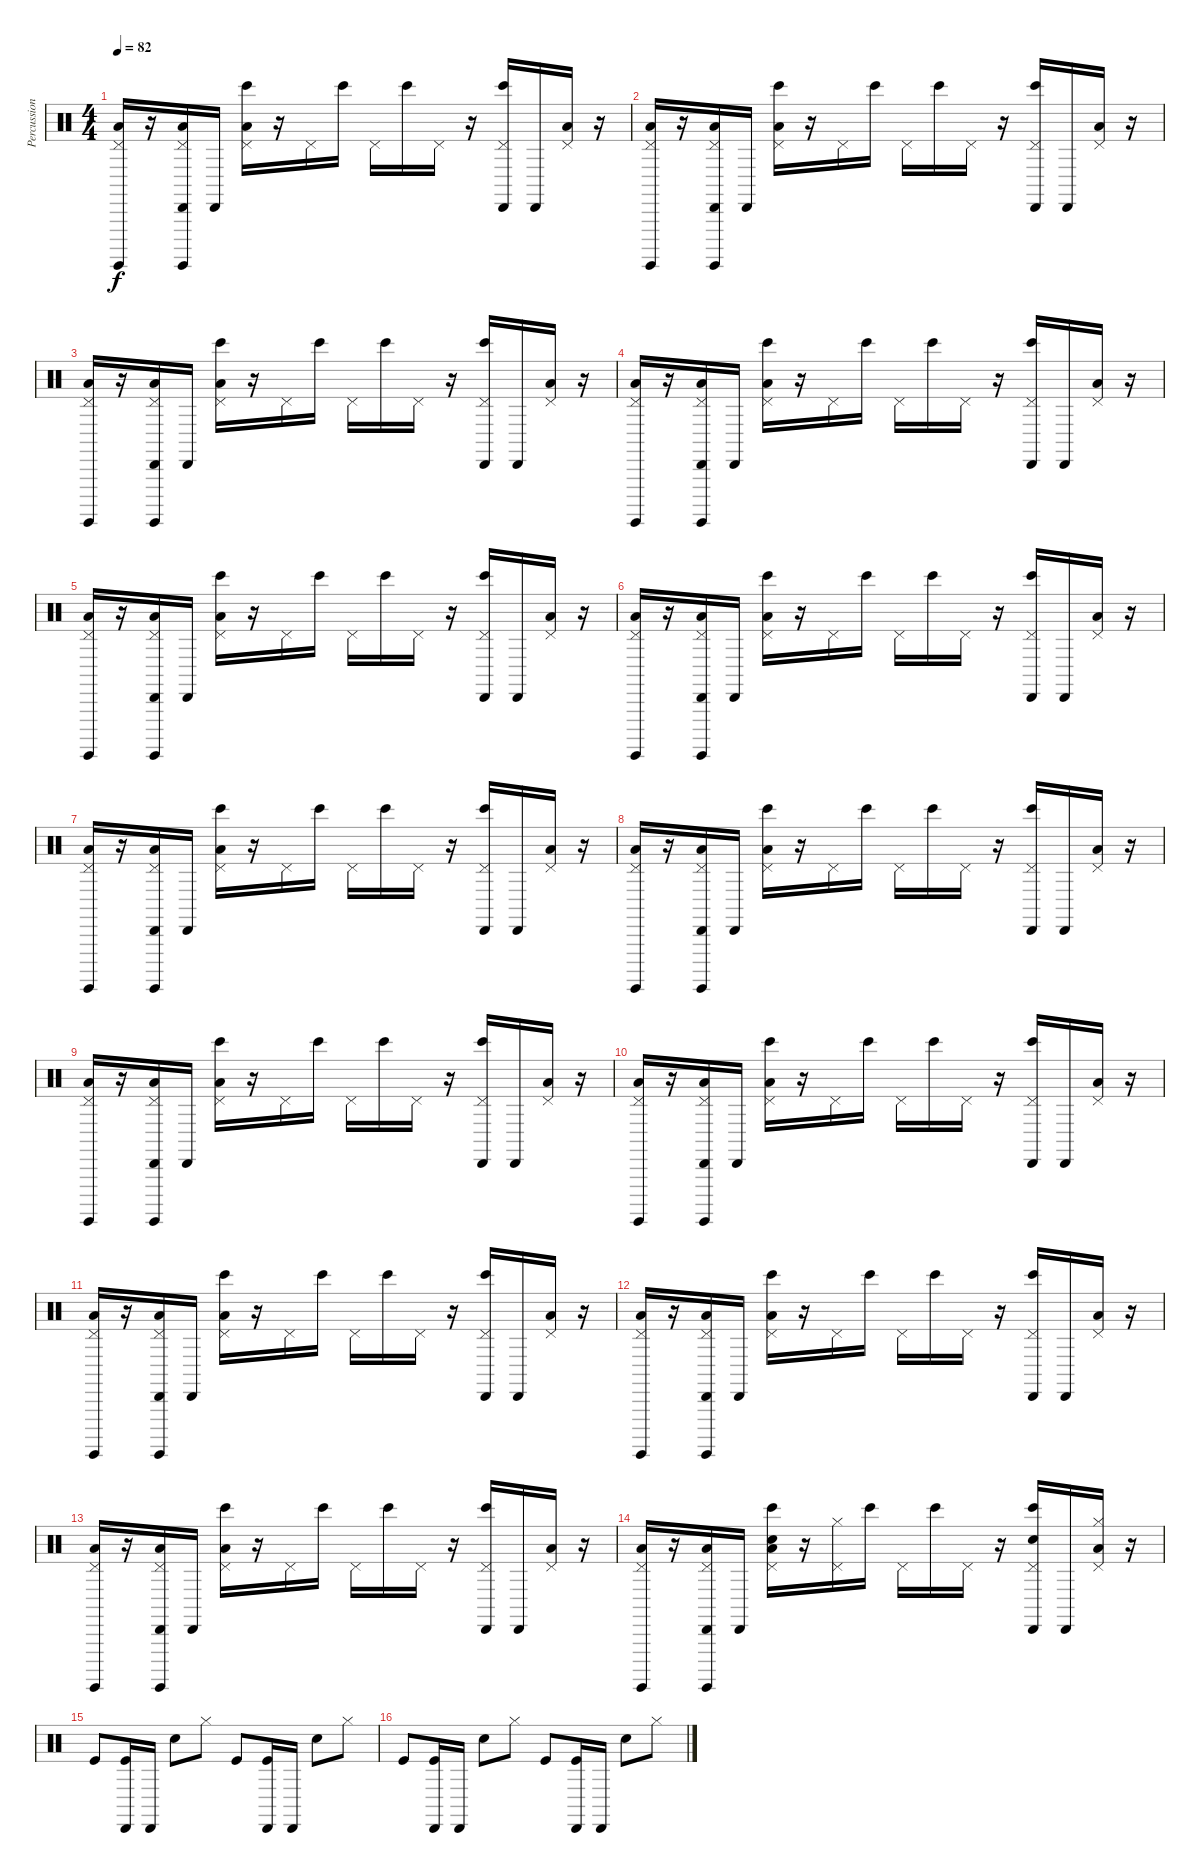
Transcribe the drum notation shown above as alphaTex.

\track ("Percussions" "Percussion") {instrument percussion}
\staff {score}
\articulation defaults
\ts (4 4)
\tempo 82
\clef neutral
\ks c
("Pedal Hi-Hat (hit)" "Low Floor Tom (hit)" "Surdo (hit)").16{dy f} r.16 ("Pedal Hi-Hat (hit)" "Cabasa (hit)" "Low Floor Tom (hit)" "Surdo (hit)").16 "Cabasa (hit)".16 ("Pedal Hi-Hat (hit)" "Low Floor Tom (hit)" "Bongo High (hit)").16 r.16 "Pedal Hi-Hat (hit)".16 "Bongo High (hit)".16 "Pedal Hi-Hat (hit)".16 "Bongo High (hit)".16 "Pedal Hi-Hat (hit)".16 r.16 ("Pedal Hi-Hat (hit)" "Cabasa (hit)" "Bongo High (hit)").16 "Cabasa (hit)".16 ("Pedal Hi-Hat (hit)" "Low Floor Tom (hit)").16 r.16 |
("Pedal Hi-Hat (hit)" "Low Floor Tom (hit)" "Surdo (hit)").16 r.16 ("Pedal Hi-Hat (hit)" "Cabasa (hit)" "Low Floor Tom (hit)" "Surdo (hit)").16 "Cabasa (hit)".16 ("Pedal Hi-Hat (hit)" "Low Floor Tom (hit)" "Bongo High (hit)").16 r.16 "Pedal Hi-Hat (hit)".16 "Bongo High (hit)".16 "Pedal Hi-Hat (hit)".16 "Bongo High (hit)".16 "Pedal Hi-Hat (hit)".16 r.16 ("Pedal Hi-Hat (hit)" "Cabasa (hit)" "Bongo High (hit)").16 "Cabasa (hit)".16 ("Pedal Hi-Hat (hit)" "Low Floor Tom (hit)").16 r.16 |
("Pedal Hi-Hat (hit)" "Low Floor Tom (hit)" "Surdo (hit)").16 r.16 ("Pedal Hi-Hat (hit)" "Cabasa (hit)" "Low Floor Tom (hit)" "Surdo (hit)").16 "Cabasa (hit)".16 ("Pedal Hi-Hat (hit)" "Low Floor Tom (hit)" "Bongo High (hit)").16 r.16 "Pedal Hi-Hat (hit)".16 "Bongo High (hit)".16 "Pedal Hi-Hat (hit)".16 "Bongo High (hit)".16 "Pedal Hi-Hat (hit)".16 r.16 ("Pedal Hi-Hat (hit)" "Cabasa (hit)" "Bongo High (hit)").16 "Cabasa (hit)".16 ("Pedal Hi-Hat (hit)" "Low Floor Tom (hit)").16 r.16 |
("Pedal Hi-Hat (hit)" "Low Floor Tom (hit)" "Surdo (hit)").16 r.16 ("Pedal Hi-Hat (hit)" "Cabasa (hit)" "Low Floor Tom (hit)" "Surdo (hit)").16 "Cabasa (hit)".16 ("Pedal Hi-Hat (hit)" "Low Floor Tom (hit)" "Bongo High (hit)").16 r.16 "Pedal Hi-Hat (hit)".16 "Bongo High (hit)".16 "Pedal Hi-Hat (hit)".16 "Bongo High (hit)".16 "Pedal Hi-Hat (hit)".16 r.16 ("Pedal Hi-Hat (hit)" "Cabasa (hit)" "Bongo High (hit)").16 "Cabasa (hit)".16 ("Pedal Hi-Hat (hit)" "Low Floor Tom (hit)").16 r.16 |
("Pedal Hi-Hat (hit)" "Low Floor Tom (hit)" "Surdo (hit)").16 r.16 ("Pedal Hi-Hat (hit)" "Cabasa (hit)" "Low Floor Tom (hit)" "Surdo (hit)").16 "Cabasa (hit)".16 ("Pedal Hi-Hat (hit)" "Low Floor Tom (hit)" "Bongo High (hit)").16 r.16 "Pedal Hi-Hat (hit)".16 "Bongo High (hit)".16 "Pedal Hi-Hat (hit)".16 "Bongo High (hit)".16 "Pedal Hi-Hat (hit)".16 r.16 ("Pedal Hi-Hat (hit)" "Cabasa (hit)" "Bongo High (hit)").16 "Cabasa (hit)".16 ("Pedal Hi-Hat (hit)" "Low Floor Tom (hit)").16 r.16 |
("Pedal Hi-Hat (hit)" "Low Floor Tom (hit)" "Surdo (hit)").16 r.16 ("Pedal Hi-Hat (hit)" "Cabasa (hit)" "Low Floor Tom (hit)" "Surdo (hit)").16 "Cabasa (hit)".16 ("Pedal Hi-Hat (hit)" "Low Floor Tom (hit)" "Bongo High (hit)").16 r.16 "Pedal Hi-Hat (hit)".16 "Bongo High (hit)".16 "Pedal Hi-Hat (hit)".16 "Bongo High (hit)".16 "Pedal Hi-Hat (hit)".16 r.16 ("Pedal Hi-Hat (hit)" "Cabasa (hit)" "Bongo High (hit)").16 "Cabasa (hit)".16 ("Pedal Hi-Hat (hit)" "Low Floor Tom (hit)").16 r.16 |
("Pedal Hi-Hat (hit)" "Low Floor Tom (hit)" "Surdo (hit)").16 r.16 ("Pedal Hi-Hat (hit)" "Cabasa (hit)" "Low Floor Tom (hit)" "Surdo (hit)").16 "Cabasa (hit)".16 ("Pedal Hi-Hat (hit)" "Low Floor Tom (hit)" "Bongo High (hit)").16 r.16 "Pedal Hi-Hat (hit)".16 "Bongo High (hit)".16 "Pedal Hi-Hat (hit)".16 "Bongo High (hit)".16 "Pedal Hi-Hat (hit)".16 r.16 ("Pedal Hi-Hat (hit)" "Cabasa (hit)" "Bongo High (hit)").16 "Cabasa (hit)".16 ("Pedal Hi-Hat (hit)" "Low Floor Tom (hit)").16 r.16 |
("Pedal Hi-Hat (hit)" "Low Floor Tom (hit)" "Surdo (hit)").16 r.16 ("Pedal Hi-Hat (hit)" "Cabasa (hit)" "Low Floor Tom (hit)" "Surdo (hit)").16 "Cabasa (hit)".16 ("Pedal Hi-Hat (hit)" "Low Floor Tom (hit)" "Bongo High (hit)").16 r.16 "Pedal Hi-Hat (hit)".16 "Bongo High (hit)".16 "Pedal Hi-Hat (hit)".16 "Bongo High (hit)".16 "Pedal Hi-Hat (hit)".16 r.16 ("Pedal Hi-Hat (hit)" "Cabasa (hit)" "Bongo High (hit)").16 "Cabasa (hit)".16 ("Pedal Hi-Hat (hit)" "Low Floor Tom (hit)").16 r.16 |
("Pedal Hi-Hat (hit)" "Low Floor Tom (hit)" "Surdo (hit)").16 r.16 ("Pedal Hi-Hat (hit)" "Cabasa (hit)" "Low Floor Tom (hit)" "Surdo (hit)").16 "Cabasa (hit)".16 ("Pedal Hi-Hat (hit)" "Low Floor Tom (hit)" "Bongo High (hit)").16 r.16 "Pedal Hi-Hat (hit)".16 "Bongo High (hit)".16 "Pedal Hi-Hat (hit)".16 "Bongo High (hit)".16 "Pedal Hi-Hat (hit)".16 r.16 ("Pedal Hi-Hat (hit)" "Cabasa (hit)" "Bongo High (hit)").16 "Cabasa (hit)".16 ("Pedal Hi-Hat (hit)" "Low Floor Tom (hit)").16 r.16 |
("Pedal Hi-Hat (hit)" "Low Floor Tom (hit)" "Surdo (hit)").16 r.16 ("Pedal Hi-Hat (hit)" "Cabasa (hit)" "Low Floor Tom (hit)" "Surdo (hit)").16 "Cabasa (hit)".16 ("Pedal Hi-Hat (hit)" "Low Floor Tom (hit)" "Bongo High (hit)").16 r.16 "Pedal Hi-Hat (hit)".16 "Bongo High (hit)".16 "Pedal Hi-Hat (hit)".16 "Bongo High (hit)".16 "Pedal Hi-Hat (hit)".16 r.16 ("Pedal Hi-Hat (hit)" "Cabasa (hit)" "Bongo High (hit)").16 "Cabasa (hit)".16 ("Pedal Hi-Hat (hit)" "Low Floor Tom (hit)").16 r.16 |
("Pedal Hi-Hat (hit)" "Low Floor Tom (hit)" "Surdo (hit)").16 r.16 ("Pedal Hi-Hat (hit)" "Cabasa (hit)" "Low Floor Tom (hit)" "Surdo (hit)").16 "Cabasa (hit)".16 ("Pedal Hi-Hat (hit)" "Low Floor Tom (hit)" "Bongo High (hit)").16 r.16 "Pedal Hi-Hat (hit)".16 "Bongo High (hit)".16 "Pedal Hi-Hat (hit)".16 "Bongo High (hit)".16 "Pedal Hi-Hat (hit)".16 r.16 ("Pedal Hi-Hat (hit)" "Cabasa (hit)" "Bongo High (hit)").16 "Cabasa (hit)".16 ("Pedal Hi-Hat (hit)" "Low Floor Tom (hit)").16 r.16 |
("Pedal Hi-Hat (hit)" "Low Floor Tom (hit)" "Surdo (hit)").16 r.16 ("Pedal Hi-Hat (hit)" "Cabasa (hit)" "Low Floor Tom (hit)" "Surdo (hit)").16 "Cabasa (hit)".16 ("Pedal Hi-Hat (hit)" "Low Floor Tom (hit)" "Bongo High (hit)").16 r.16 "Pedal Hi-Hat (hit)".16 "Bongo High (hit)".16 "Pedal Hi-Hat (hit)".16 "Bongo High (hit)".16 "Pedal Hi-Hat (hit)".16 r.16 ("Pedal Hi-Hat (hit)" "Cabasa (hit)" "Bongo High (hit)").16 "Cabasa (hit)".16 ("Pedal Hi-Hat (hit)" "Low Floor Tom (hit)").16 r.16 |
("Pedal Hi-Hat (hit)" "Low Floor Tom (hit)" "Surdo (hit)").16 r.16 ("Pedal Hi-Hat (hit)" "Cabasa (hit)" "Low Floor Tom (hit)" "Surdo (hit)").16 "Cabasa (hit)".16 ("Pedal Hi-Hat (hit)" "Low Floor Tom (hit)" "Bongo High (hit)").16 r.16 "Pedal Hi-Hat (hit)".16 "Bongo High (hit)".16 "Pedal Hi-Hat (hit)".16 "Bongo High (hit)".16 "Pedal Hi-Hat (hit)".16 r.16 ("Pedal Hi-Hat (hit)" "Cabasa (hit)" "Bongo High (hit)").16 "Cabasa (hit)".16 ("Pedal Hi-Hat (hit)" "Low Floor Tom (hit)").16 r.16 |
("Pedal Hi-Hat (hit)" "Low Floor Tom (hit)" "Surdo (hit)").16 r.16 ("Pedal Hi-Hat (hit)" "Cabasa (hit)" "Low Floor Tom (hit)" "Surdo (hit)").16 "Cabasa (hit)".16 ("Pedal Hi-Hat (hit)" "Low Floor Tom (hit)" "Bongo High (hit)" "Electric Snare (hit)").16 r.16 ("Pedal Hi-Hat (hit)" "Hi-Hat (closed)").16 "Bongo High (hit)".16 "Pedal Hi-Hat (hit)".16 "Bongo High (hit)".16 "Pedal Hi-Hat (hit)".16 r.16 ("Pedal Hi-Hat (hit)" "Cabasa (hit)" "Bongo High (hit)" "Electric Snare (hit)").16 "Cabasa (hit)".16 ("Pedal Hi-Hat (hit)" "Low Floor Tom (hit)" "Hi-Hat (closed)").16 r.16 |
"Kick (hit)".8 ("Cabasa (hit)" "Kick (hit)").16 "Cabasa (hit)".16 "Electric Snare (hit)".8 "Hi-Hat (closed)".8 "Kick (hit)".8 ("Cabasa (hit)" "Kick (hit)").16 "Cabasa (hit)".16 "Electric Snare (hit)".8 "Hi-Hat (closed)".8 |
"Kick (hit)".8 ("Cabasa (hit)" "Kick (hit)").16 "Cabasa (hit)".16 "Electric Snare (hit)".8 "Hi-Hat (closed)".8 "Kick (hit)".8 ("Cabasa (hit)" "Kick (hit)").16 "Cabasa (hit)".16 "Electric Snare (hit)".8 "Hi-Hat (closed)".8
